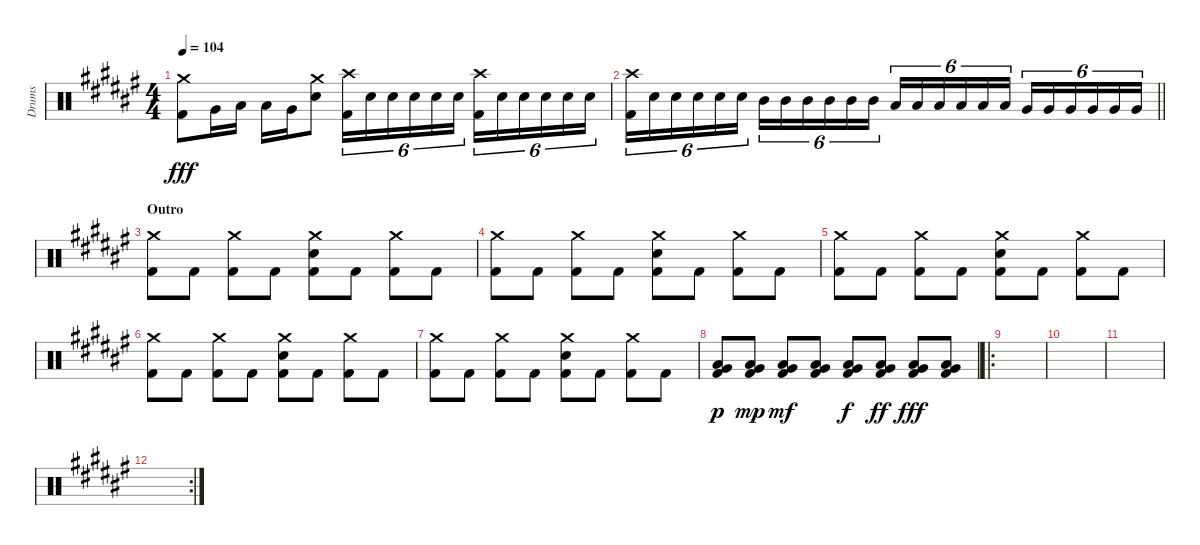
\track ("Drums" "Drums") {instrument percussion}
\staff {score}
\articulation defaults
\ts (4 4)
\tempo 104
\clef neutral
\ks f#
("Crash medium (hit)" "Kick (hit) 2").8{dy fff} "Very Low Tom (hit)".16 "Low Tom (hit)".16 "Low Floor Tom (hit)".16 "Very Low Tom (hit)".16 ("Crash medium (hit)" "Snare (hit) 2").8 ("Crash high (hit)" "Kick (hit) 2").16{tu (6 4)} "Snare (hit) 2".16{tu (6 4)} "Snare (hit) 2".16{tu (6 4)} "Snare (hit) 2".16{tu (6 4)} "Snare (hit) 2".16{tu (6 4)} "Snare (hit) 2".16{tu (6 4)} ("Crash high (hit)" "Kick (hit) 2").16{tu (6 4)} "Snare (hit) 2".16{tu (6 4)} "Snare (hit) 2".16{tu (6 4)} "Snare (hit) 2".16{tu (6 4)} "Snare (hit) 2".16{tu (6 4)} "Snare (hit) 2".16{tu (6 4)} |
\barLineRight lightlight
("Crash high (hit)" "Kick (hit) 2").16{tu (6 4)} "Snare (hit) 2".16{tu (6 4)} "Snare (hit) 2".16{tu (6 4)} "Snare (hit) 2".16{tu (6 4)} "Snare (hit) 2".16{tu (6 4)} "Snare (hit) 2".16{tu (6 4)} "Mid Tom (hit)".16{tu (6 4)} "Mid Tom (hit)".16{tu (6 4)} "Mid Tom (hit)".16{tu (6 4)} "Mid Tom (hit)".16{tu (6 4)} "Mid Tom (hit)".16{tu (6 4)} "Mid Tom (hit)".16{tu (6 4)} "Low Tom (hit)".16{tu (6 4)} "Low Tom (hit)".16{tu (6 4)} "Low Tom (hit)".16{tu (6 4)} "Low Tom (hit)".16{tu (6 4)} "Low Tom (hit)".16{tu (6 4)} "Low Tom (hit)".16{tu (6 4)} "Very Low Tom (hit)".16{tu (6 4)} "Very Low Tom (hit)".16{tu (6 4)} "Very Low Tom (hit)".16{tu (6 4)} "Very Low Tom (hit)".16{tu (6 4)} "Very Low Tom (hit)".16{tu (6 4)} "Very Low Tom (hit)".16{tu (6 4)} |
\section ("" "Outro")
("Crash medium (hit)" "Kick (hit) 2").8 "Kick (hit) 2".8 ("Crash medium (hit)" "Kick (hit) 2").8 "Kick (hit) 2".8 ("Crash medium (hit)" "Snare (hit) 2" "Kick (hit) 2").8 "Kick (hit) 2".8 ("Crash medium (hit)" "Kick (hit) 2").8 "Kick (hit) 2".8 |
("Crash medium (hit)" "Kick (hit) 2").8 "Kick (hit) 2".8 ("Crash medium (hit)" "Kick (hit) 2").8 "Kick (hit) 2".8 ("Crash medium (hit)" "Snare (hit) 2" "Kick (hit) 2").8 "Kick (hit) 2".8 ("Crash medium (hit)" "Kick (hit) 2").8 "Kick (hit) 2".8 |
("Crash medium (hit)" "Kick (hit) 2").8 "Kick (hit) 2".8 ("Crash medium (hit)" "Kick (hit) 2").8 "Kick (hit) 2".8 ("Crash medium (hit)" "Snare (hit) 2" "Kick (hit) 2").8 "Kick (hit) 2".8 ("Crash medium (hit)" "Kick (hit) 2").8 "Kick (hit) 2".8 |
("Crash medium (hit)" "Kick (hit) 2").8 "Kick (hit) 2".8 ("Crash medium (hit)" "Kick (hit) 2").8 "Kick (hit) 2".8 ("Crash medium (hit)" "Snare (hit) 2" "Kick (hit) 2").8 "Kick (hit) 2".8 ("Crash medium (hit)" "Kick (hit) 2").8 "Kick (hit) 2".8 |
("Crash medium (hit)" "Kick (hit) 2").8 "Kick (hit) 2".8 ("Crash medium (hit)" "Kick (hit) 2").8 "Kick (hit) 2".8 ("Crash medium (hit)" "Snare (hit) 2" "Kick (hit) 2").8 "Kick (hit) 2".8 ("Crash medium (hit)" "Kick (hit) 2").8 "Kick (hit) 2".8 |
("Low Tom (hit)" "Very Low Tom (hit)" "Kick (hit) 2").8{dy p} ("Low Tom (hit)" "Very Low Tom (hit)" "Kick (hit) 2").8{dy mp} ("Low Tom (hit)" "Very Low Tom (hit)" "Kick (hit) 2").8{dy mf} ("Low Tom (hit)" "Very Low Tom (hit)" "Kick (hit) 2").8 ("Low Tom (hit)" "Very Low Tom (hit)" "Kick (hit) 2").8{dy f} ("Low Tom (hit)" "Very Low Tom (hit)" "Kick (hit) 2").8{dy ff} ("Low Tom (hit)" "Very Low Tom (hit)" "Kick (hit) 2").8{dy fff} ("Low Tom (hit)" "Very Low Tom (hit)" "Kick (hit) 2").8 |
\ro
|
|
|
\rc 2
